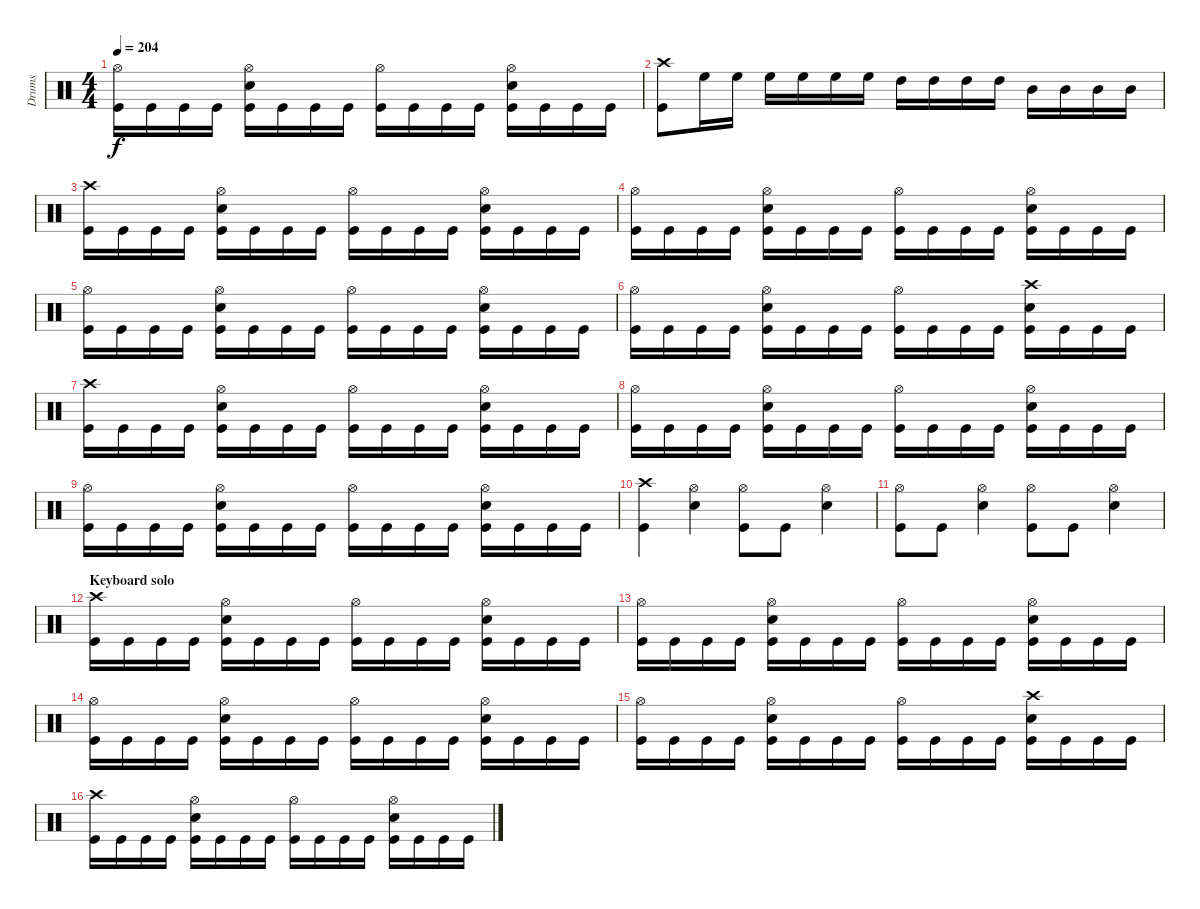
\track ("Drums" "Drums") {instrument percussion}
\staff {score}
\articulation defaults
\ts (4 4)
\tempo 204
\clef neutral
\ks c
("Hi-Hat (open)" "Kick (hit)").16{dy f} "Kick (hit)".16 "Kick (hit)".16 "Kick (hit)".16 ("Hi-Hat (open)" "Snare (hit) 2" "Kick (hit)").16 "Kick (hit)".16 "Kick (hit)".16 "Kick (hit)".16 ("Hi-Hat (open)" "Kick (hit)").16 "Kick (hit)".16 "Kick (hit)".16 "Kick (hit)".16 ("Hi-Hat (open)" "Snare (hit) 2" "Kick (hit)").16 "Kick (hit)".16 "Kick (hit)".16 "Kick (hit)".16 |
("Crash high (hit)" "Kick (hit)").8 "High Floor Tom (hit)".16 "High Floor Tom (hit)".16 "High Floor Tom (hit)".16 "High Floor Tom (hit)".16 "High Floor Tom (hit)".16 "High Floor Tom (hit)".16 "High Tom (hit)".16 "High Tom (hit)".16 "High Tom (hit)".16 "High Tom (hit)".16 "Mid Tom (hit)".16 "Mid Tom (hit)".16 "Mid Tom (hit)".16 "Mid Tom (hit)".16 |
("Crash high (hit)" "Kick (hit)").16 "Kick (hit)".16 "Kick (hit)".16 "Kick (hit)".16 ("Hi-Hat (open)" "Snare (hit) 2" "Kick (hit)").16 "Kick (hit)".16 "Kick (hit)".16 "Kick (hit)".16 ("Hi-Hat (open)" "Kick (hit)").16 "Kick (hit)".16 "Kick (hit)".16 "Kick (hit)".16 ("Hi-Hat (open)" "Snare (hit) 2" "Kick (hit)").16 "Kick (hit)".16 "Kick (hit)".16 "Kick (hit)".16 |
("Hi-Hat (open)" "Kick (hit)").16 "Kick (hit)".16 "Kick (hit)".16 "Kick (hit)".16 ("Hi-Hat (open)" "Snare (hit) 2" "Kick (hit)").16 "Kick (hit)".16 "Kick (hit)".16 "Kick (hit)".16 ("Hi-Hat (open)" "Kick (hit)").16 "Kick (hit)".16 "Kick (hit)".16 "Kick (hit)".16 ("Hi-Hat (open)" "Snare (hit) 2" "Kick (hit)").16 "Kick (hit)".16 "Kick (hit)".16 "Kick (hit)".16 |
("Hi-Hat (open)" "Kick (hit)").16 "Kick (hit)".16 "Kick (hit)".16 "Kick (hit)".16 ("Hi-Hat (open)" "Snare (hit) 2" "Kick (hit)").16 "Kick (hit)".16 "Kick (hit)".16 "Kick (hit)".16 ("Hi-Hat (open)" "Kick (hit)").16 "Kick (hit)".16 "Kick (hit)".16 "Kick (hit)".16 ("Hi-Hat (open)" "Snare (hit) 2" "Kick (hit)").16 "Kick (hit)".16 "Kick (hit)".16 "Kick (hit)".16 |
("Hi-Hat (open)" "Kick (hit)").16 "Kick (hit)".16 "Kick (hit)".16 "Kick (hit)".16 ("Hi-Hat (open)" "Snare (hit) 2" "Kick (hit)").16 "Kick (hit)".16 "Kick (hit)".16 "Kick (hit)".16 ("Hi-Hat (open)" "Kick (hit)").16 "Kick (hit)".16 "Kick (hit)".16 "Kick (hit)".16 ("Crash high (hit)" "Snare (hit) 2" "Kick (hit)").16 "Kick (hit)".16 "Kick (hit)".16 "Kick (hit)".16 |
("Crash high (hit)" "Kick (hit)").16 "Kick (hit)".16 "Kick (hit)".16 "Kick (hit)".16 ("Hi-Hat (open)" "Snare (hit) 2" "Kick (hit)").16 "Kick (hit)".16 "Kick (hit)".16 "Kick (hit)".16 ("Hi-Hat (open)" "Kick (hit)").16 "Kick (hit)".16 "Kick (hit)".16 "Kick (hit)".16 ("Hi-Hat (open)" "Snare (hit) 2" "Kick (hit)").16 "Kick (hit)".16 "Kick (hit)".16 "Kick (hit)".16 |
("Hi-Hat (open)" "Kick (hit)").16 "Kick (hit)".16 "Kick (hit)".16 "Kick (hit)".16 ("Hi-Hat (open)" "Snare (hit) 2" "Kick (hit)").16 "Kick (hit)".16 "Kick (hit)".16 "Kick (hit)".16 ("Hi-Hat (open)" "Kick (hit)").16 "Kick (hit)".16 "Kick (hit)".16 "Kick (hit)".16 ("Hi-Hat (open)" "Snare (hit) 2" "Kick (hit)").16 "Kick (hit)".16 "Kick (hit)".16 "Kick (hit)".16 |
("Hi-Hat (open)" "Kick (hit)").16 "Kick (hit)".16 "Kick (hit)".16 "Kick (hit)".16 ("Hi-Hat (open)" "Snare (hit) 2" "Kick (hit)").16 "Kick (hit)".16 "Kick (hit)".16 "Kick (hit)".16 ("Hi-Hat (open)" "Kick (hit)").16 "Kick (hit)".16 "Kick (hit)".16 "Kick (hit)".16 ("Hi-Hat (open)" "Snare (hit) 2" "Kick (hit)").16 "Kick (hit)".16 "Kick (hit)".16 "Kick (hit)".16 |
("Crash high (hit)" "Kick (hit)").4 ("Hi-Hat (open)" "Snare (hit) 2").4 ("Hi-Hat (open)" "Kick (hit)").8 "Kick (hit)".8 ("Hi-Hat (open)" "Snare (hit) 2").4 |
("Hi-Hat (open)" "Kick (hit)").8 "Kick (hit)".8 ("Hi-Hat (open)" "Snare (hit) 2").4 ("Hi-Hat (open)" "Kick (hit)").8 "Kick (hit)".8 ("Hi-Hat (open)" "Snare (hit) 2").4 |
\section ("" "Keyboard solo")
("Crash high (hit)" "Kick (hit)").16 "Kick (hit)".16 "Kick (hit)".16 "Kick (hit)".16 ("Hi-Hat (open)" "Snare (hit) 2" "Kick (hit)").16 "Kick (hit)".16 "Kick (hit)".16 "Kick (hit)".16 ("Hi-Hat (open)" "Kick (hit)").16 "Kick (hit)".16 "Kick (hit)".16 "Kick (hit)".16 ("Hi-Hat (open)" "Snare (hit) 2" "Kick (hit)").16 "Kick (hit)".16 "Kick (hit)".16 "Kick (hit)".16 |
("Hi-Hat (open)" "Kick (hit)").16 "Kick (hit)".16 "Kick (hit)".16 "Kick (hit)".16 ("Hi-Hat (open)" "Snare (hit) 2" "Kick (hit)").16 "Kick (hit)".16 "Kick (hit)".16 "Kick (hit)".16 ("Hi-Hat (open)" "Kick (hit)").16 "Kick (hit)".16 "Kick (hit)".16 "Kick (hit)".16 ("Hi-Hat (open)" "Snare (hit) 2" "Kick (hit)").16 "Kick (hit)".16 "Kick (hit)".16 "Kick (hit)".16 |
("Hi-Hat (open)" "Kick (hit)").16 "Kick (hit)".16 "Kick (hit)".16 "Kick (hit)".16 ("Hi-Hat (open)" "Snare (hit) 2" "Kick (hit)").16 "Kick (hit)".16 "Kick (hit)".16 "Kick (hit)".16 ("Hi-Hat (open)" "Kick (hit)").16 "Kick (hit)".16 "Kick (hit)".16 "Kick (hit)".16 ("Hi-Hat (open)" "Snare (hit) 2" "Kick (hit)").16 "Kick (hit)".16 "Kick (hit)".16 "Kick (hit)".16 |
("Hi-Hat (open)" "Kick (hit)").16 "Kick (hit)".16 "Kick (hit)".16 "Kick (hit)".16 ("Hi-Hat (open)" "Snare (hit) 2" "Kick (hit)").16 "Kick (hit)".16 "Kick (hit)".16 "Kick (hit)".16 ("Hi-Hat (open)" "Kick (hit)").16 "Kick (hit)".16 "Kick (hit)".16 "Kick (hit)".16 ("Crash high (hit)" "Snare (hit) 2" "Kick (hit)").16 "Kick (hit)".16 "Kick (hit)".16 "Kick (hit)".16 |
("Crash high (hit)" "Kick (hit)").16 "Kick (hit)".16 "Kick (hit)".16 "Kick (hit)".16 ("Hi-Hat (open)" "Snare (hit) 2" "Kick (hit)").16 "Kick (hit)".16 "Kick (hit)".16 "Kick (hit)".16 ("Hi-Hat (open)" "Kick (hit)").16 "Kick (hit)".16 "Kick (hit)".16 "Kick (hit)".16 ("Hi-Hat (open)" "Snare (hit) 2" "Kick (hit)").16 "Kick (hit)".16 "Kick (hit)".16 "Kick (hit)".16
